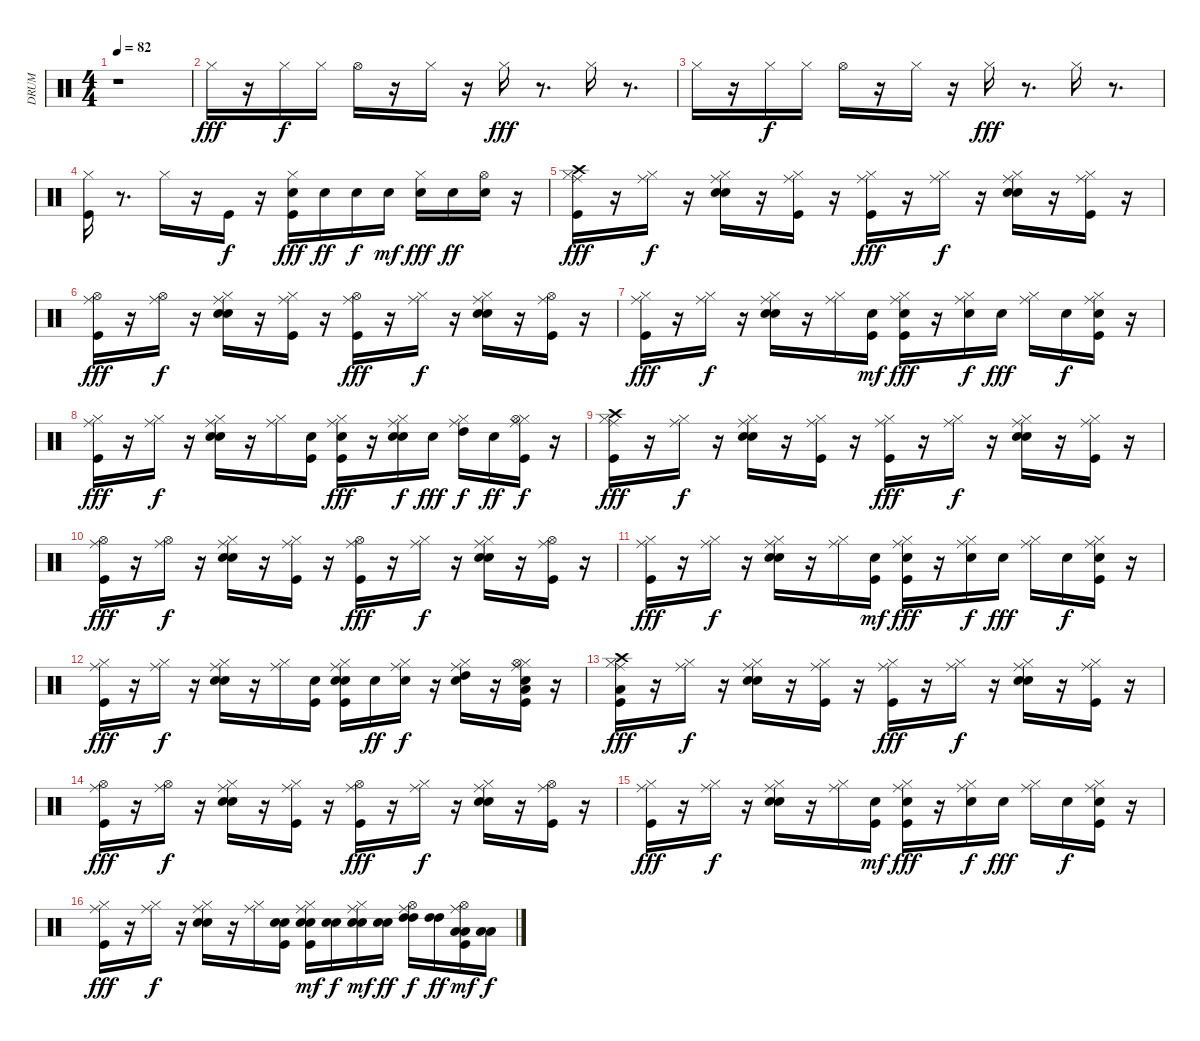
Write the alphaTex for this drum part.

\track ("DRUM" "DRUM") {instrument percussion}
\staff {score}
\articulation defaults
\ts (4 4)
\tempo 82
\clef neutral
\ks c
r.1{dy fff} |
"Hi-Hat (closed)".16 r.16 "Hi-Hat (closed)".16{dy f} "Hi-Hat (closed)".16 "Hi-Hat (open)".16 r.16 "Hi-Hat (closed)".16 r.16 "Hi-Hat (closed)".16{dy fff} r.8{d} "Hi-Hat (closed)".16 r.8{d} |
"Hi-Hat (closed)".16 r.16 "Hi-Hat (closed)".16{dy f} "Hi-Hat (closed)".16 "Hi-Hat (open)".16 r.16 "Hi-Hat (closed)".16 r.16 "Hi-Hat (closed)".16{dy fff} r.8{d} "Hi-Hat (closed)".16 r.8{d} |
("Kick (hit)" "Hi-Hat (closed)").16 r.8{d} "Hi-Hat (closed)".16 r.16 "Kick (hit)".16{dy f} r.16 ("Kick (hit)" "Snare (hit) 2" "Hi-Hat (closed)").16{dy fff} "Snare (hit) 2".16{dy ff} "Snare (hit) 2".16{dy f} "Snare (hit) 2".16{dy mf} ("Snare (hit) 2" "Hi-Hat (closed)").16{dy fff} "Snare (hit) 2".16{dy ff} ("Snare (hit) 2" "Hi-Hat (open)").16 r.16 |
("Kick (hit)" "Hi-Hat (closed)" "Ride (middle)" "Crash high (hit)").16{dy fff} r.16 ("Hi-Hat (closed)" "Ride (middle)").16{dy f} r.16 ("Snare (hit) 2" "Hi-Hat (closed)" "Ride (middle)" "Hand Clap (hit)").16 r.16 ("Kick (hit)" "Hi-Hat (closed)" "Ride (middle)").16 r.16 ("Kick (hit)" "Hi-Hat (closed)" "Ride (middle)").16{dy fff} r.16 ("Hi-Hat (closed)" "Ride (middle)").16{dy f} r.16 ("Snare (hit) 2" "Hi-Hat (closed)" "Ride (middle)" "Hand Clap (hit)").16 r.16 ("Kick (hit)" "Hi-Hat (closed)" "Ride (middle)").16 r.16 |
("Kick (hit)" "Hi-Hat (open)" "Ride (middle)").16{dy fff} r.16 ("Hi-Hat (open)" "Ride (middle)").16{dy f} r.16 ("Snare (hit) 2" "Hi-Hat (closed)" "Ride (middle)" "Hand Clap (hit)").16 r.16 ("Kick (hit)" "Hi-Hat (closed)" "Ride (middle)").16 r.16 ("Kick (hit)" "Hi-Hat (open)" "Ride (middle)").16{dy fff} r.16 ("Hi-Hat (closed)" "Ride (middle)").16{dy f} r.16 ("Snare (hit) 2" "Hi-Hat (closed)" "Ride (middle)" "Hand Clap (hit)").16 r.16 ("Kick (hit)" "Hi-Hat (open)" "Ride (middle)").16 r.16 |
("Kick (hit)" "Hi-Hat (closed)" "Ride (middle)").16{dy fff} r.16 ("Hi-Hat (closed)" "Ride (middle)").16{dy f} r.16 ("Snare (hit) 2" "Hi-Hat (closed)" "Ride (middle)" "Hand Clap (hit)").16 r.16 ("Hi-Hat (closed)" "Ride (middle)").16 ("Kick (hit)" "Snare (hit) 2").16{dy mf} ("Kick (hit)" "Snare (hit) 2" "Hi-Hat (closed)" "Ride (middle)").16{dy fff} r.16 ("Snare (hit) 2" "Hi-Hat (closed)" "Ride (middle)").16{dy f} "Snare (hit) 2".16{dy fff} ("Hi-Hat (closed)" "Ride (middle)").16 "Snare (hit) 2".16{dy f} ("Kick (hit)" "Snare (hit) 2" "Hi-Hat (closed)" "Ride (middle)").16 r.16 |
("Kick (hit)" "Hi-Hat (closed)" "Ride (middle)").16{dy fff} r.16 ("Hi-Hat (closed)" "Ride (middle)").16{dy f} r.16 ("Snare (hit) 2" "Hi-Hat (closed)" "Ride (middle)" "Hand Clap (hit)").16 r.16 ("Hi-Hat (closed)" "Ride (middle)").16 ("Kick (hit)" "Snare (hit) 2").16 ("Kick (hit)" "Snare (hit) 2" "Hi-Hat (closed)" "Ride (middle)").16{dy fff} r.16 ("Snare (hit) 2" "Hi-Hat (closed)" "Ride (middle)" "Snare (hit) 2").16{dy f} "Snare (hit) 2".16{dy fff} ("Hi-Hat (closed)" "Ride (middle)" "High Tom (hit)").16{dy f} "Snare (hit) 2".16{dy ff} ("Kick (hit)" "Hi-Hat (closed)" "Hi-Hat (open)" "Ride (middle)").16{dy f} r.16 |
("Kick (hit)" "Hi-Hat (closed)" "Ride (middle)" "Crash high (hit)").16{dy fff} r.16 ("Hi-Hat (closed)" "Ride (middle)").16{dy f} r.16 ("Snare (hit) 2" "Hi-Hat (closed)" "Ride (middle)" "Hand Clap (hit)").16 r.16 ("Kick (hit)" "Hi-Hat (closed)" "Ride (middle)").16 r.16 ("Kick (hit)" "Hi-Hat (closed)" "Ride (middle)").16{dy fff} r.16 ("Hi-Hat (closed)" "Ride (middle)").16{dy f} r.16 ("Snare (hit) 2" "Hi-Hat (closed)" "Ride (middle)" "Hand Clap (hit)").16 r.16 ("Kick (hit)" "Hi-Hat (closed)" "Ride (middle)").16 r.16 |
("Kick (hit)" "Hi-Hat (open)" "Ride (middle)").16{dy fff} r.16 ("Hi-Hat (open)" "Ride (middle)").16{dy f} r.16 ("Snare (hit) 2" "Hi-Hat (closed)" "Ride (middle)" "Hand Clap (hit)").16 r.16 ("Kick (hit)" "Hi-Hat (closed)" "Ride (middle)").16 r.16 ("Kick (hit)" "Hi-Hat (open)" "Ride (middle)").16{dy fff} r.16 ("Hi-Hat (closed)" "Ride (middle)").16{dy f} r.16 ("Snare (hit) 2" "Hi-Hat (closed)" "Ride (middle)" "Hand Clap (hit)").16 r.16 ("Kick (hit)" "Hi-Hat (open)" "Ride (middle)").16 r.16 |
("Kick (hit)" "Hi-Hat (closed)" "Ride (middle)").16{dy fff} r.16 ("Hi-Hat (closed)" "Ride (middle)").16{dy f} r.16 ("Snare (hit) 2" "Hi-Hat (closed)" "Ride (middle)" "Hand Clap (hit)").16 r.16 ("Hi-Hat (closed)" "Ride (middle)").16 ("Kick (hit)" "Snare (hit) 2").16{dy mf} ("Kick (hit)" "Snare (hit) 2" "Hi-Hat (closed)" "Ride (middle)").16{dy fff} r.16 ("Snare (hit) 2" "Hi-Hat (closed)" "Ride (middle)").16{dy f} "Snare (hit) 2".16{dy fff} ("Hi-Hat (closed)" "Ride (middle)").16 "Snare (hit) 2".16{dy f} ("Kick (hit)" "Snare (hit) 2" "Hi-Hat (closed)" "Ride (middle)").16 r.16 |
("Kick (hit)" "Hi-Hat (closed)" "Ride (middle)").16{dy fff} r.16 ("Hi-Hat (closed)" "Ride (middle)").16{dy f} r.16 ("Snare (hit) 2" "Hi-Hat (closed)" "Ride (middle)" "Hand Clap (hit)").16 r.16 ("Hi-Hat (closed)" "Ride (middle)").16 ("Kick (hit)" "Snare (hit) 2").16 ("Kick (hit)" "Snare (hit) 2" "Hi-Hat (closed)" "Ride (middle)" "Snare (hit) 2").16 "Snare (hit) 2".16{dy ff} ("Snare (hit) 2" "Hi-Hat (closed)" "Ride (middle)").16{dy f} r.16 ("Snare (hit) 2" "Hi-Hat (closed)" "Ride (middle)" "High Tom (hit)").16 r.16 ("Snare (hit) 2" "Kick (hit)" "Hi-Hat (closed)" "Hi-Hat (open)" "Ride (middle)" "Low Tom (hit)").16 r.16 |
("Low Floor Tom (hit)" "Kick (hit)" "Hi-Hat (closed)" "Ride (middle)" "Crash high (hit)").16{dy fff} r.16 ("Hi-Hat (closed)" "Ride (middle)").16{dy f} r.16 ("Snare (hit) 2" "Hi-Hat (closed)" "Ride (middle)" "Hand Clap (hit)").16 r.16 ("Kick (hit)" "Hi-Hat (closed)" "Ride (middle)").16 r.16 ("Kick (hit)" "Hi-Hat (closed)" "Ride (middle)").16{dy fff} r.16 ("Hi-Hat (closed)" "Ride (middle)").16{dy f} r.16 ("Snare (hit) 2" "Hi-Hat (closed)" "Ride (middle)" "Hand Clap (hit)").16 r.16 ("Kick (hit)" "Hi-Hat (closed)" "Ride (middle)").16 r.16 |
("Kick (hit)" "Hi-Hat (open)" "Ride (middle)").16{dy fff} r.16 ("Hi-Hat (open)" "Ride (middle)").16{dy f} r.16 ("Snare (hit) 2" "Hi-Hat (closed)" "Ride (middle)" "Hand Clap (hit)").16 r.16 ("Kick (hit)" "Hi-Hat (closed)" "Ride (middle)").16 r.16 ("Kick (hit)" "Hi-Hat (open)" "Ride (middle)").16{dy fff} r.16 ("Hi-Hat (closed)" "Ride (middle)").16{dy f} r.16 ("Snare (hit) 2" "Hi-Hat (closed)" "Ride (middle)" "Hand Clap (hit)").16 r.16 ("Kick (hit)" "Hi-Hat (open)" "Ride (middle)").16 r.16 |
("Kick (hit)" "Hi-Hat (closed)" "Ride (middle)").16{dy fff} r.16 ("Hi-Hat (closed)" "Ride (middle)").16{dy f} r.16 ("Snare (hit) 2" "Hi-Hat (closed)" "Ride (middle)" "Hand Clap (hit)").16 r.16 ("Hi-Hat (closed)" "Ride (middle)").16 ("Kick (hit)" "Snare (hit) 2").16{dy mf} ("Kick (hit)" "Snare (hit) 2" "Hi-Hat (closed)" "Ride (middle)").16{dy fff} r.16 ("Snare (hit) 2" "Hi-Hat (closed)" "Ride (middle)").16{dy f} "Snare (hit) 2".16{dy fff} ("Hi-Hat (closed)" "Ride (middle)").16 "Snare (hit) 2".16{dy f} ("Kick (hit)" "Snare (hit) 2" "Hi-Hat (closed)" "Ride (middle)").16 r.16 |
("Kick (hit)" "Hi-Hat (closed)" "Ride (middle)").16{dy fff} r.16 ("Hi-Hat (closed)" "Ride (middle)").16{dy f} r.16 ("Snare (hit) 2" "Hi-Hat (closed)" "Ride (middle)" "Hand Clap (hit)").16 r.16 ("Hi-Hat (closed)" "Ride (middle)").16 ("Kick (hit)" "Snare (hit) 2" "Snare (hit) 2").16 ("Kick (hit)" "Snare (hit) 2" "Hi-Hat (closed)" "Ride (middle)" "Snare (hit) 2").16{dy mf} ("Snare (hit) 2" "Snare (hit) 2").16{dy f} ("Snare (hit) 2" "Hi-Hat (closed)" "Ride (middle)" "Snare (hit) 2").16{dy mf} ("Snare (hit) 2" "Snare (hit) 2").16{dy ff} ("Hi-Hat (open)" "Ride (middle)" "High Tom (hit)" "High Tom (hit)").16{dy f} ("High Tom (hit)" "High Tom (hit)").16{dy ff} ("Kick (hit)" "Hi-Hat (open)" "Ride (middle)" "Low Tom (hit)" "Low Tom (hit)").16{dy mf} ("Low Tom (hit)" "Low Floor Tom (hit)").16{dy f}
